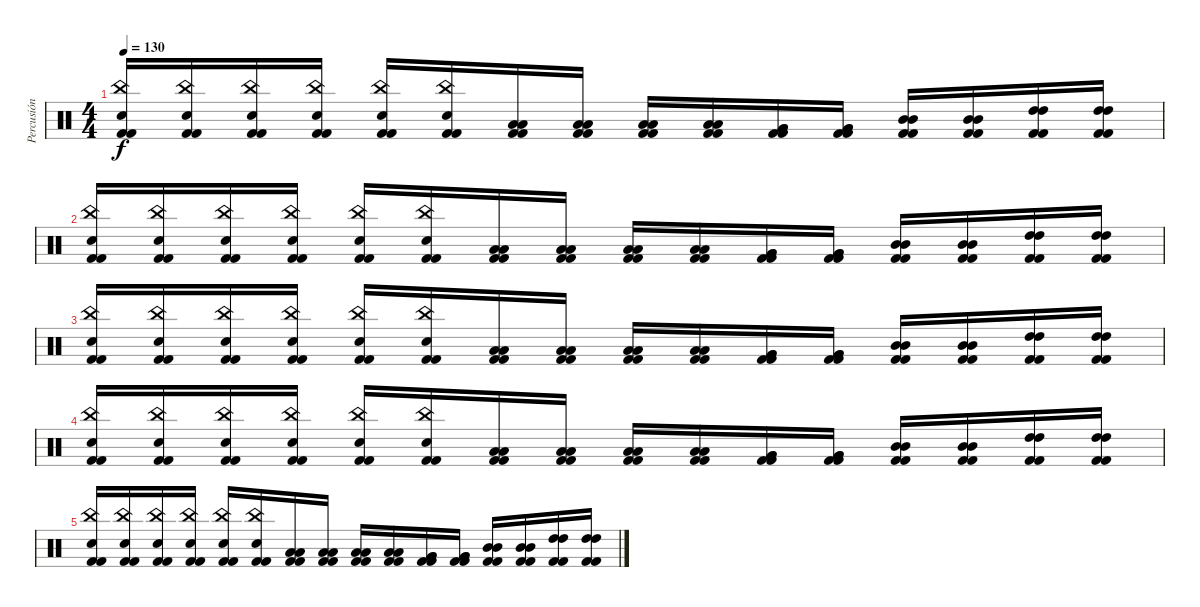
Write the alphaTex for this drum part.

\track ("Percusión" "Percusión") {instrument percussion}
\staff {score}
\articulation defaults
\ts (4 4)
\tempo 130
\clef neutral
\ks c
("Electric Snare (hit)" "China (hit)" "Kick (hit) 2" "Kick (hit) 2").16{dy f} ("Electric Snare (hit)" "China (hit)" "Kick (hit) 2" "Kick (hit) 2").16 ("Electric Snare (hit)" "China (hit)" "Kick (hit) 2" "Kick (hit) 2").16 ("Electric Snare (hit)" "China (hit)" "Kick (hit) 2" "Kick (hit) 2").16 ("Electric Snare (hit)" "China (hit)" "Kick (hit) 2" "Kick (hit) 2").16 ("Electric Snare (hit)" "China (hit)" "Kick (hit) 2" "Kick (hit) 2").16 ("Low Tom (hit)" "Low Tom (hit)" "Kick (hit) 2" "Kick (hit) 2").16 ("Low Tom (hit)" "Low Tom (hit)" "Kick (hit) 2" "Kick (hit) 2").16 ("Low Floor Tom (hit)" "Low Floor Tom (hit)" "Kick (hit) 2" "Kick (hit) 2").16 ("Low Floor Tom (hit)" "Low Floor Tom (hit)" "Kick (hit) 2" "Kick (hit) 2").16 ("Very Low Tom (hit)" "Very Low Tom (hit)" "Kick (hit) 2" "Kick (hit) 2").16 ("Very Low Tom (hit)" "Very Low Tom (hit)" "Kick (hit) 2" "Kick (hit) 2").16 ("Mid Tom (hit)" "Mid Tom (hit)" "Kick (hit) 2" "Kick (hit) 2").16 ("Mid Tom (hit)" "Mid Tom (hit)" "Kick (hit) 2" "Kick (hit) 2").16 ("High Tom (hit)" "High Tom (hit)" "Kick (hit) 2" "Kick (hit) 2").16 ("High Tom (hit)" "High Tom (hit)" "Kick (hit) 2" "Kick (hit) 2").16 |
("Electric Snare (hit)" "China (hit)" "Kick (hit) 2" "Kick (hit) 2").16{volume 10} ("Electric Snare (hit)" "China (hit)" "Kick (hit) 2" "Kick (hit) 2").16 ("Electric Snare (hit)" "China (hit)" "Kick (hit) 2" "Kick (hit) 2").16 ("Electric Snare (hit)" "China (hit)" "Kick (hit) 2" "Kick (hit) 2").16 ("Electric Snare (hit)" "China (hit)" "Kick (hit) 2" "Kick (hit) 2").16 ("Electric Snare (hit)" "China (hit)" "Kick (hit) 2" "Kick (hit) 2").16 ("Low Tom (hit)" "Low Tom (hit)" "Kick (hit) 2" "Kick (hit) 2").16 ("Low Tom (hit)" "Low Tom (hit)" "Kick (hit) 2" "Kick (hit) 2").16 ("Low Floor Tom (hit)" "Low Floor Tom (hit)" "Kick (hit) 2" "Kick (hit) 2").16 ("Low Floor Tom (hit)" "Low Floor Tom (hit)" "Kick (hit) 2" "Kick (hit) 2").16 ("Very Low Tom (hit)" "Very Low Tom (hit)" "Kick (hit) 2" "Kick (hit) 2").16 ("Very Low Tom (hit)" "Very Low Tom (hit)" "Kick (hit) 2" "Kick (hit) 2").16 ("Mid Tom (hit)" "Mid Tom (hit)" "Kick (hit) 2" "Kick (hit) 2").16 ("Mid Tom (hit)" "Mid Tom (hit)" "Kick (hit) 2" "Kick (hit) 2").16 ("High Tom (hit)" "High Tom (hit)" "Kick (hit) 2" "Kick (hit) 2").16 ("High Tom (hit)" "High Tom (hit)" "Kick (hit) 2" "Kick (hit) 2").16 |
("Electric Snare (hit)" "China (hit)" "Kick (hit) 2" "Kick (hit) 2").16{volume 8} ("Electric Snare (hit)" "China (hit)" "Kick (hit) 2" "Kick (hit) 2").16 ("Electric Snare (hit)" "China (hit)" "Kick (hit) 2" "Kick (hit) 2").16 ("Electric Snare (hit)" "China (hit)" "Kick (hit) 2" "Kick (hit) 2").16 ("Electric Snare (hit)" "China (hit)" "Kick (hit) 2" "Kick (hit) 2").16 ("Electric Snare (hit)" "China (hit)" "Kick (hit) 2" "Kick (hit) 2").16 ("Low Tom (hit)" "Low Tom (hit)" "Kick (hit) 2" "Kick (hit) 2").16 ("Low Tom (hit)" "Low Tom (hit)" "Kick (hit) 2" "Kick (hit) 2").16 ("Low Floor Tom (hit)" "Low Floor Tom (hit)" "Kick (hit) 2" "Kick (hit) 2").16 ("Low Floor Tom (hit)" "Low Floor Tom (hit)" "Kick (hit) 2" "Kick (hit) 2").16 ("Very Low Tom (hit)" "Very Low Tom (hit)" "Kick (hit) 2" "Kick (hit) 2").16 ("Very Low Tom (hit)" "Very Low Tom (hit)" "Kick (hit) 2" "Kick (hit) 2").16 ("Mid Tom (hit)" "Mid Tom (hit)" "Kick (hit) 2" "Kick (hit) 2").16 ("Mid Tom (hit)" "Mid Tom (hit)" "Kick (hit) 2" "Kick (hit) 2").16 ("High Tom (hit)" "High Tom (hit)" "Kick (hit) 2" "Kick (hit) 2").16 ("High Tom (hit)" "High Tom (hit)" "Kick (hit) 2" "Kick (hit) 2").16 |
("Electric Snare (hit)" "China (hit)" "Kick (hit) 2" "Kick (hit) 2").16{volume 6} ("Electric Snare (hit)" "China (hit)" "Kick (hit) 2" "Kick (hit) 2").16 ("Electric Snare (hit)" "China (hit)" "Kick (hit) 2" "Kick (hit) 2").16 ("Electric Snare (hit)" "China (hit)" "Kick (hit) 2" "Kick (hit) 2").16 ("Electric Snare (hit)" "China (hit)" "Kick (hit) 2" "Kick (hit) 2").16 ("Electric Snare (hit)" "China (hit)" "Kick (hit) 2" "Kick (hit) 2").16 ("Low Tom (hit)" "Low Tom (hit)" "Kick (hit) 2" "Kick (hit) 2").16 ("Low Tom (hit)" "Low Tom (hit)" "Kick (hit) 2" "Kick (hit) 2").16 ("Low Floor Tom (hit)" "Low Floor Tom (hit)" "Kick (hit) 2" "Kick (hit) 2").16 ("Low Floor Tom (hit)" "Low Floor Tom (hit)" "Kick (hit) 2" "Kick (hit) 2").16 ("Very Low Tom (hit)" "Very Low Tom (hit)" "Kick (hit) 2" "Kick (hit) 2").16 ("Very Low Tom (hit)" "Very Low Tom (hit)" "Kick (hit) 2" "Kick (hit) 2").16 ("Mid Tom (hit)" "Mid Tom (hit)" "Kick (hit) 2" "Kick (hit) 2").16 ("Mid Tom (hit)" "Mid Tom (hit)" "Kick (hit) 2" "Kick (hit) 2").16 ("High Tom (hit)" "High Tom (hit)" "Kick (hit) 2" "Kick (hit) 2").16 ("High Tom (hit)" "High Tom (hit)" "Kick (hit) 2" "Kick (hit) 2").16 |
("Electric Snare (hit)" "China (hit)" "Kick (hit) 2" "Kick (hit) 2").16{volume 0} ("Electric Snare (hit)" "China (hit)" "Kick (hit) 2" "Kick (hit) 2").16 ("Electric Snare (hit)" "China (hit)" "Kick (hit) 2" "Kick (hit) 2").16 ("Electric Snare (hit)" "China (hit)" "Kick (hit) 2" "Kick (hit) 2").16 ("Electric Snare (hit)" "China (hit)" "Kick (hit) 2" "Kick (hit) 2").16 ("Electric Snare (hit)" "China (hit)" "Kick (hit) 2" "Kick (hit) 2").16 ("Low Tom (hit)" "Low Tom (hit)" "Kick (hit) 2" "Kick (hit) 2").16 ("Low Tom (hit)" "Low Tom (hit)" "Kick (hit) 2" "Kick (hit) 2").16 ("Low Floor Tom (hit)" "Low Floor Tom (hit)" "Kick (hit) 2" "Kick (hit) 2").16 ("Low Floor Tom (hit)" "Low Floor Tom (hit)" "Kick (hit) 2" "Kick (hit) 2").16 ("Very Low Tom (hit)" "Very Low Tom (hit)" "Kick (hit) 2" "Kick (hit) 2").16 ("Very Low Tom (hit)" "Very Low Tom (hit)" "Kick (hit) 2" "Kick (hit) 2").16 ("Mid Tom (hit)" "Mid Tom (hit)" "Kick (hit) 2" "Kick (hit) 2").16 ("Mid Tom (hit)" "Mid Tom (hit)" "Kick (hit) 2" "Kick (hit) 2").16 ("High Tom (hit)" "High Tom (hit)" "Kick (hit) 2" "Kick (hit) 2").16 ("High Tom (hit)" "High Tom (hit)" "Kick (hit) 2" "Kick (hit) 2").16
